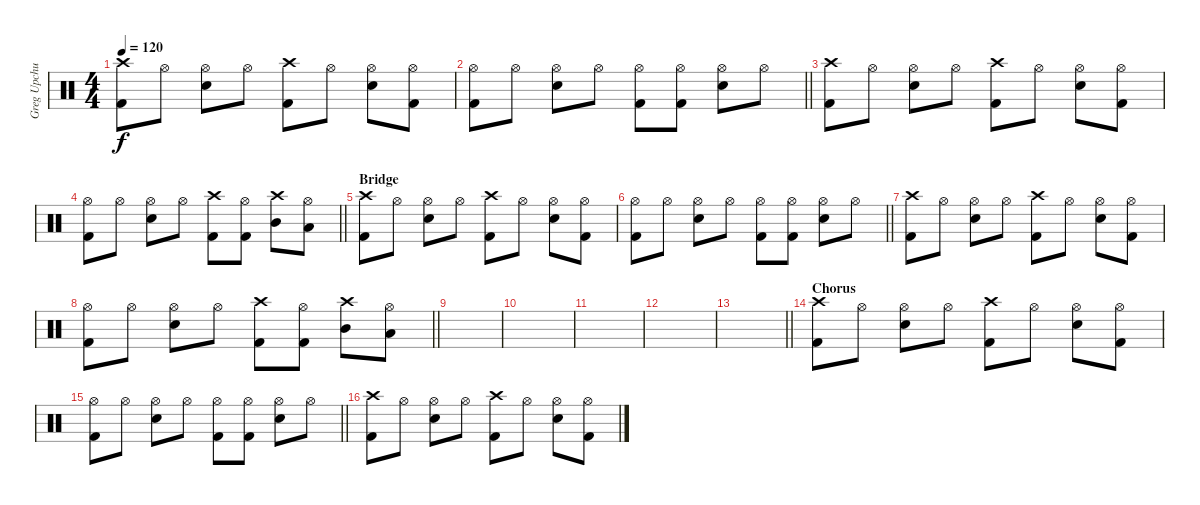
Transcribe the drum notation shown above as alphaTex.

\track ("Greg Upchurch(drums)" "Greg Upchu") {instrument percussion}
\staff {score}
\articulation defaults
\ts (4 4)
\tempo 120
\clef neutral
\ks c
("Crash high (hit)" "Kick (hit) 2").8{dy f} "Hi-Hat (open)".8 ("Hi-Hat (open)" "Snare (hit) 2").8 "Hi-Hat (open)".8 ("Crash high (hit)" "Kick (hit) 2").8 "Hi-Hat (open)".8 ("Hi-Hat (open)" "Snare (hit) 2").8 ("Hi-Hat (open)" "Kick (hit) 2").8 |
\barLineRight lightlight
("Hi-Hat (open)" "Kick (hit) 2").8 "Hi-Hat (open)".8 ("Hi-Hat (open)" "Snare (hit) 2").8 "Hi-Hat (open)".8 ("Hi-Hat (open)" "Kick (hit) 2").8 ("Hi-Hat (open)" "Kick (hit) 2").8 ("Hi-Hat (open)" "Snare (hit) 2").8 "Hi-Hat (open)".8 |
("Crash high (hit)" "Kick (hit) 2").8 "Hi-Hat (open)".8 ("Hi-Hat (open)" "Snare (hit) 2").8 "Hi-Hat (open)".8 ("Crash high (hit)" "Kick (hit) 2").8 "Hi-Hat (open)".8 ("Hi-Hat (open)" "Snare (hit) 2").8 ("Hi-Hat (open)" "Kick (hit) 2").8 |
\barLineRight lightlight
("Hi-Hat (open)" "Kick (hit) 2").8 "Hi-Hat (open)".8 ("Hi-Hat (open)" "Snare (hit) 2").8 "Hi-Hat (open)".8 ("Crash high (hit)" "Kick (hit) 2").8 ("Hi-Hat (open)" "Kick (hit) 2").8 ("Crash high (hit)" "Mid Tom (hit)").8 ("Hi-Hat (open)" "Low Tom (hit)").8 |
\section ("" "Bridge")
("Crash high (hit)" "Kick (hit) 2").8 "Hi-Hat (open)".8 ("Hi-Hat (open)" "Snare (hit) 2").8 "Hi-Hat (open)".8 ("Crash high (hit)" "Kick (hit) 2").8 "Hi-Hat (open)".8 ("Hi-Hat (open)" "Snare (hit) 2").8 ("Hi-Hat (open)" "Kick (hit) 2").8 |
\barLineRight lightlight
("Hi-Hat (open)" "Kick (hit) 2").8 "Hi-Hat (open)".8 ("Hi-Hat (open)" "Snare (hit) 2").8 "Hi-Hat (open)".8 ("Hi-Hat (open)" "Kick (hit) 2").8 ("Hi-Hat (open)" "Kick (hit) 2").8 ("Hi-Hat (open)" "Snare (hit) 2").8 "Hi-Hat (open)".8 |
("Crash high (hit)" "Kick (hit) 2").8 "Hi-Hat (open)".8 ("Hi-Hat (open)" "Snare (hit) 2").8 "Hi-Hat (open)".8 ("Crash high (hit)" "Kick (hit) 2").8 "Hi-Hat (open)".8 ("Hi-Hat (open)" "Snare (hit) 2").8 ("Hi-Hat (open)" "Kick (hit) 2").8 |
\barLineRight lightlight
("Hi-Hat (open)" "Kick (hit) 2").8 "Hi-Hat (open)".8 ("Hi-Hat (open)" "Snare (hit) 2").8 "Hi-Hat (open)".8 ("Crash high (hit)" "Kick (hit) 2").8 ("Hi-Hat (open)" "Kick (hit) 2").8 ("Crash high (hit)" "Mid Tom (hit)").8 ("Hi-Hat (open)" "Low Tom (hit)").8 |
|
|
|
|
\barLineRight lightlight
|
\section ("" "Chorus")
("Crash high (hit)" "Kick (hit) 2").8 "Hi-Hat (open)".8 ("Hi-Hat (open)" "Snare (hit) 2").8 "Hi-Hat (open)".8 ("Crash high (hit)" "Kick (hit) 2").8 "Hi-Hat (open)".8 ("Hi-Hat (open)" "Snare (hit) 2").8 ("Hi-Hat (open)" "Kick (hit) 2").8 |
\barLineRight lightlight
("Hi-Hat (open)" "Kick (hit) 2").8 "Hi-Hat (open)".8 ("Hi-Hat (open)" "Snare (hit) 2").8 "Hi-Hat (open)".8 ("Hi-Hat (open)" "Kick (hit) 2").8 ("Hi-Hat (open)" "Kick (hit) 2").8 ("Hi-Hat (open)" "Snare (hit) 2").8 "Hi-Hat (open)".8 |
("Crash high (hit)" "Kick (hit) 2").8 "Hi-Hat (open)".8 ("Hi-Hat (open)" "Snare (hit) 2").8 "Hi-Hat (open)".8 ("Crash high (hit)" "Kick (hit) 2").8 "Hi-Hat (open)".8 ("Hi-Hat (open)" "Snare (hit) 2").8 ("Hi-Hat (open)" "Kick (hit) 2").8
